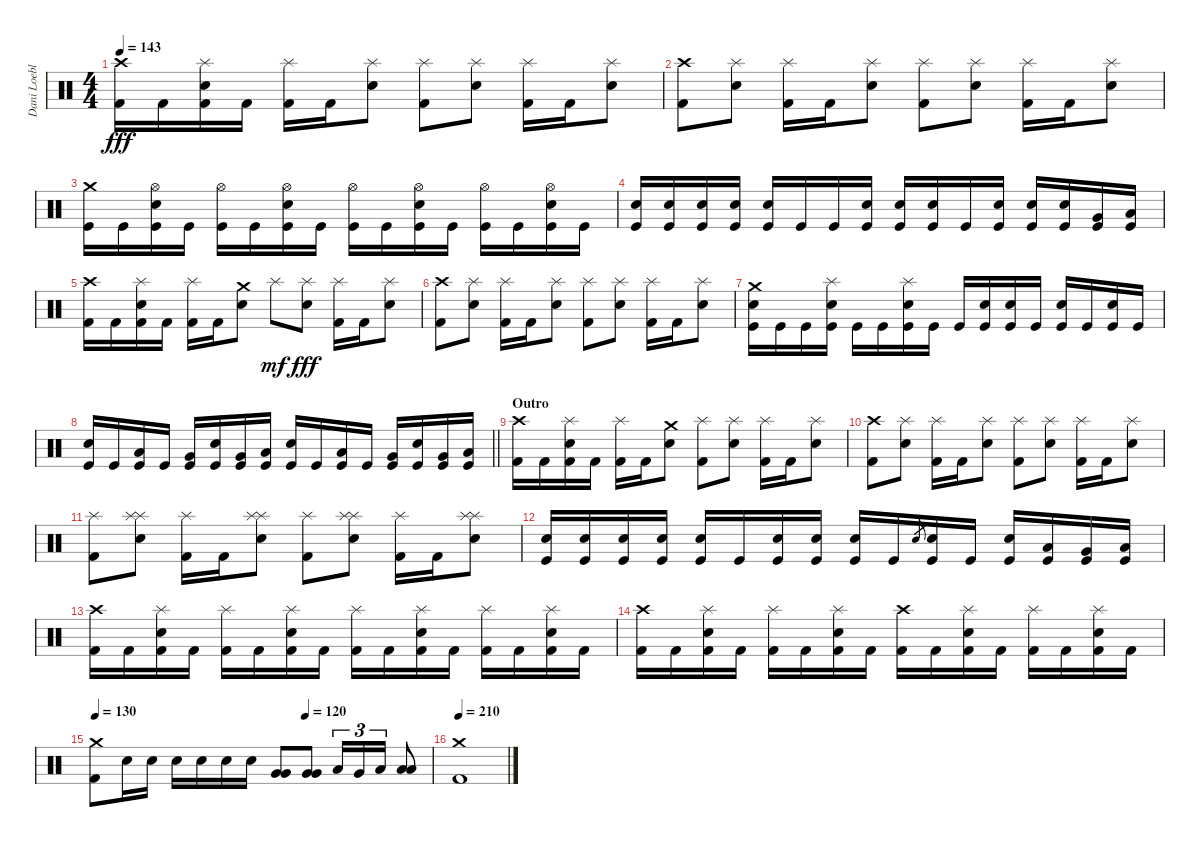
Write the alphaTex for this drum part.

\track ("Dani Loeble" "Dani Loebl") {instrument percussion}
\staff {score}
\articulation defaults
\ts (4 4)
\tempo 143
\clef neutral
\ks c
("Crash high (hit)" "Kick (hit) 2").16{dy fff} "Kick (hit) 2".16 ("Splash (hit)" "Electric Snare (hit)" "Kick (hit) 2").16 "Kick (hit) 2".16 ("Splash (hit)" "Kick (hit) 2").16 "Kick (hit) 2".16 ("Splash (hit)" "Electric Snare (hit)").8 ("Splash (hit)" "Kick (hit) 2").8 ("Splash (hit)" "Electric Snare (hit)").8 ("Splash (hit)" "Kick (hit) 2").16 "Kick (hit) 2".16 ("Splash (hit)" "Electric Snare (hit)").8 |
("Crash high (hit)" "Kick (hit) 2").8 ("Splash (hit)" "Electric Snare (hit)").8 ("Splash (hit)" "Kick (hit) 2").16 "Kick (hit) 2".16 ("Splash (hit)" "Electric Snare (hit)").8 ("Splash (hit)" "Kick (hit) 2").8 ("Splash (hit)" "Electric Snare (hit)").8 ("Splash (hit)" "Kick (hit) 2").16 "Kick (hit) 2".16 ("Splash (hit)" "Electric Snare (hit)").8 |
("Crash medium (hit)" "Kick (hit)").16 "Kick (hit)".16 ("Hi-Hat (open)" "Electric Snare (hit)" "Kick (hit)").16 "Kick (hit)".16 ("Hi-Hat (open)" "Kick (hit)").16 "Kick (hit)".16 ("Hi-Hat (open)" "Electric Snare (hit)" "Kick (hit)").16 "Kick (hit)".16 ("Hi-Hat (open)" "Kick (hit)").16 "Kick (hit)".16 ("Hi-Hat (open)" "Electric Snare (hit)" "Kick (hit)").16 "Kick (hit)".16 ("Hi-Hat (open)" "Kick (hit)").16 "Kick (hit)".16 ("Hi-Hat (open)" "Electric Snare (hit)" "Kick (hit)").16 "Kick (hit)".16 |
("Electric Snare (hit)" "Kick (hit)").16 ("Electric Snare (hit)" "Kick (hit)").16 ("Electric Snare (hit)" "Kick (hit)").16 ("Electric Snare (hit)" "Kick (hit)").16 ("Electric Snare (hit)" "Kick (hit)").16 "Kick (hit)".16 "Kick (hit)".16 ("Electric Snare (hit)" "Kick (hit)").16 ("Electric Snare (hit)" "Kick (hit)").16 ("Electric Snare (hit)" "Kick (hit)").16 "Kick (hit)".16 ("Electric Snare (hit)" "Kick (hit)").16 ("Electric Snare (hit)" "Kick (hit)").16 ("Electric Snare (hit)" "Kick (hit)").16 ("Very Low Tom (hit)" "Kick (hit)").16 ("Low Floor Tom (hit)" "Kick (hit)").16 |
("Crash high (hit)" "Kick (hit) 2").16 "Kick (hit) 2".16 ("Splash (hit)" "Electric Snare (hit)" "Kick (hit) 2").16 "Kick (hit) 2".16 ("Splash (hit)" "Kick (hit) 2").16 "Kick (hit) 2".16 ("Crash medium (hit)" "Electric Snare (hit)").8 "Splash (hit)".8{dy mf} ("Splash (hit)" "Electric Snare (hit)").8{dy fff} ("Splash (hit)" "Kick (hit) 2").16 "Kick (hit) 2".16 ("Splash (hit)" "Electric Snare (hit)").8 |
("Crash high (hit)" "Kick (hit) 2").8 ("Splash (hit)" "Electric Snare (hit)").8 ("Splash (hit)" "Kick (hit) 2").16 "Kick (hit) 2".16 ("Splash (hit)" "Electric Snare (hit)").8 ("Splash (hit)" "Kick (hit) 2").8 ("Splash (hit)" "Electric Snare (hit)").8 ("Splash (hit)" "Kick (hit) 2").16 "Kick (hit) 2".16 ("Splash (hit)" "Electric Snare (hit)").8 |
("Crash medium (hit)" "Electric Snare (hit)" "Kick (hit)").16 "Kick (hit)".16 "Kick (hit)".16 ("Splash (hit)" "Electric Snare (hit)" "Kick (hit)").16 "Kick (hit)".16 "Kick (hit)".16 ("Splash (hit)" "Electric Snare (hit)" "Kick (hit)").16 "Kick (hit)".16 "Kick (hit)".16 ("Electric Snare (hit)" "Kick (hit)").16 ("Electric Snare (hit)" "Kick (hit)").16 "Kick (hit)".16 ("Electric Snare (hit)" "Kick (hit)").16 "Kick (hit)".16 ("Electric Snare (hit)" "Kick (hit)").16 "Kick (hit)".16 |
\barLineRight lightlight
("Electric Snare (hit)" "Kick (hit)").16 "Kick (hit)".16 ("Low Floor Tom (hit)" "Kick (hit)").16 "Kick (hit)".16 ("Very Low Tom (hit)" "Kick (hit)").16 ("Electric Snare (hit)" "Kick (hit)").16 ("Very Low Tom (hit)" "Kick (hit)").16 ("Low Floor Tom (hit)" "Kick (hit)").16 ("Electric Snare (hit)" "Kick (hit)").16 "Kick (hit)".16 ("Low Floor Tom (hit)" "Kick (hit)").16 "Kick (hit)".16 ("Very Low Tom (hit)" "Kick (hit)").16 ("Electric Snare (hit)" "Kick (hit)").16 ("Very Low Tom (hit)" "Kick (hit)").16 ("Low Floor Tom (hit)" "Kick (hit)").16 |
\section ("" "Outro")
("Crash high (hit)" "Kick (hit) 2").16 "Kick (hit) 2".16 ("Splash (hit)" "Electric Snare (hit)" "Kick (hit) 2").16 "Kick (hit) 2".16 ("Splash (hit)" "Kick (hit) 2").16 "Kick (hit) 2".16 ("Crash medium (hit)" "Electric Snare (hit)").8 ("Splash (hit)" "Kick (hit) 2").8 ("Splash (hit)" "Electric Snare (hit)").8 ("Splash (hit)" "Kick (hit) 2").16 "Kick (hit) 2".16 ("Splash (hit)" "Electric Snare (hit)").8 |
("Crash high (hit)" "Kick (hit) 2").8 ("Splash (hit)" "Electric Snare (hit)").8 ("Splash (hit)" "Kick (hit) 2").16 "Kick (hit) 2".16 ("Splash (hit)" "Electric Snare (hit)").8 ("Splash (hit)" "Kick (hit) 2").8 ("Splash (hit)" "Electric Snare (hit)").8 ("Splash (hit)" "Kick (hit) 2").16 "Kick (hit) 2".16 ("Splash (hit)" "Electric Snare (hit)").8 |
("Splash (hit)" "Kick (hit) 2").8 ("Splash (hit)" "Splash (hit)" "Electric Snare (hit)").8 ("Splash (hit)" "Kick (hit) 2").16 "Kick (hit) 2".16 ("Splash (hit)" "Splash (hit)" "Electric Snare (hit)").8 ("Splash (hit)" "Kick (hit) 2").8 ("Splash (hit)" "Splash (hit)" "Electric Snare (hit)").8 ("Splash (hit)" "Kick (hit) 2").16 "Kick (hit) 2".16 ("Splash (hit)" "Splash (hit)" "Electric Snare (hit)").8 |
("Electric Snare (hit)" "Kick (hit)").16 ("Electric Snare (hit)" "Kick (hit)").16 ("Electric Snare (hit)" "Kick (hit)").16 ("Electric Snare (hit)" "Kick (hit)").16 ("Electric Snare (hit)" "Kick (hit)").16 "Kick (hit)".16 ("Electric Snare (hit)" "Kick (hit)").16 ("Electric Snare (hit)" "Kick (hit)").16 ("Electric Snare (hit)" "Kick (hit)").16 "Kick (hit)".16 "Electric Snare (hit)".8{gr} ("Electric Snare (hit)" "Kick (hit)").16 "Kick (hit)".16 ("Electric Snare (hit)" "Kick (hit)").16 ("Low Tom (hit)" "Kick (hit)").16 ("Very Low Tom (hit)" "Kick (hit)").16 ("Low Floor Tom (hit)" "Kick (hit)").16 |
("Crash high (hit)" "Kick (hit) 2").16 "Kick (hit) 2".16 ("Splash (hit)" "Electric Snare (hit)" "Kick (hit) 2").16 "Kick (hit) 2".16 ("Splash (hit)" "Kick (hit) 2").16 "Kick (hit) 2".16 ("Splash (hit)" "Electric Snare (hit)" "Kick (hit) 2").16 "Kick (hit) 2".16 ("Splash (hit)" "Kick (hit) 2").16 "Kick (hit) 2".16 ("Splash (hit)" "Electric Snare (hit)" "Kick (hit) 2").16 "Kick (hit) 2".16 ("Splash (hit)" "Kick (hit) 2").16 "Kick (hit) 2".16 ("Splash (hit)" "Electric Snare (hit)" "Kick (hit) 2").16 "Kick (hit) 2".16 |
("Crash high (hit)" "Kick (hit) 2").16 "Kick (hit) 2".16 ("Splash (hit)" "Electric Snare (hit)" "Kick (hit) 2").16 "Kick (hit) 2".16 ("Splash (hit)" "Kick (hit) 2").16 "Kick (hit) 2".16 ("Splash (hit)" "Electric Snare (hit)" "Kick (hit) 2").16 "Kick (hit) 2".16 ("Crash high (hit)" "Kick (hit) 2").16 "Kick (hit) 2".16 ("Splash (hit)" "Electric Snare (hit)" "Kick (hit) 2").16 "Kick (hit) 2".16 ("Splash (hit)" "Kick (hit) 2").16 "Kick (hit) 2".16 ("Splash (hit)" "Electric Snare (hit)" "Kick (hit) 2").16 "Kick (hit) 2".16 |
\tempo 130
\tempo (120 0.625)
("Crash medium (hit)" "Kick (hit) 2").8 "Electric Snare (hit)".16 "Electric Snare (hit)".16 "Electric Snare (hit)".16 "Electric Snare (hit)".16 "Electric Snare (hit)".16 "Electric Snare (hit)".16 ("Very Low Tom (hit)" "Very Low Tom (hit)").8 ("Very Low Tom (hit)" "Very Low Tom (hit)").8 "Low Tom (hit)".16{tu (3 2)} "Very Low Tom (hit)".16{tu (3 2)} "Low Floor Tom (hit)".16{tu (3 2)} ("Low Floor Tom (hit)" "Low Floor Tom (hit)").8 |
\tempo 210
("Crash medium (hit)" "Kick (hit) 2").1
